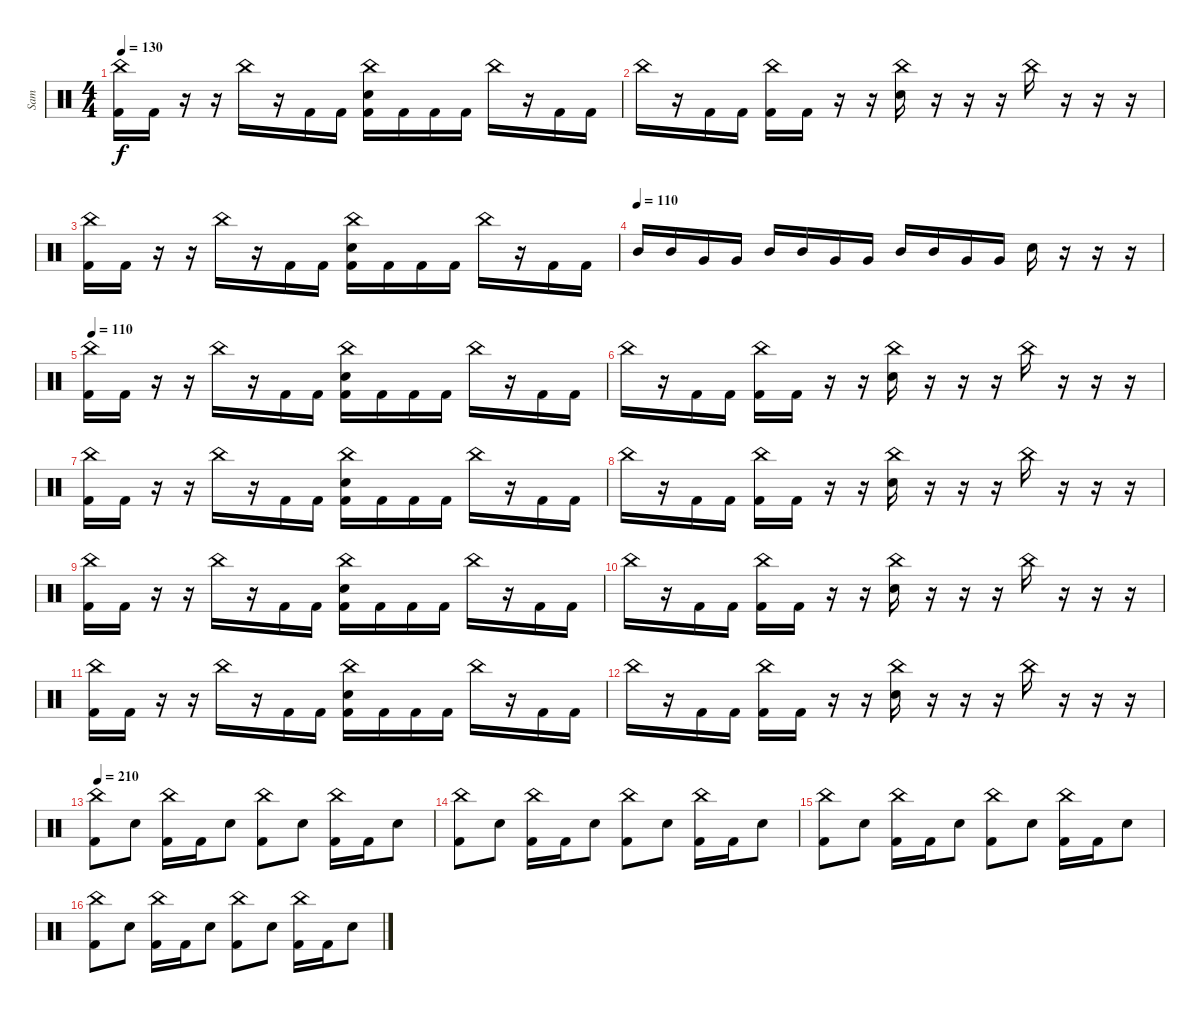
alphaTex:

\track ("Sam" "Sam") {instrument percussion}
\staff {score}
\articulation defaults
\ts (4 4)
\tempo 130
\clef neutral
\ks c
("China (hit)" "Kick (hit) 2").16{dy f} "Kick (hit) 2".16 r.16 r.16 "China (hit)".16 r.16 "Kick (hit) 2".16 "Kick (hit) 2".16 ("China (hit)" "Snare (hit) 2" "Kick (hit) 2").16 "Kick (hit) 2".16 "Kick (hit) 2".16 "Kick (hit) 2".16 "China (hit)".16 r.16 "Kick (hit) 2".16 "Kick (hit) 2".16 |
"China (hit)".16 r.16 "Kick (hit) 2".16 "Kick (hit) 2".16 ("China (hit)" "Kick (hit) 2").16 "Kick (hit) 2".16 r.16 r.16 ("China (hit)" "Snare (hit) 2").16 r.16 r.16 r.16 "China (hit)".16 r.16 r.16 r.16 |
("China (hit)" "Kick (hit) 2").16 "Kick (hit) 2".16 r.16 r.16 "China (hit)".16 r.16 "Kick (hit) 2".16 "Kick (hit) 2".16 ("China (hit)" "Snare (hit) 2" "Kick (hit) 2").16 "Kick (hit) 2".16 "Kick (hit) 2".16 "Kick (hit) 2".16 "China (hit)".16 r.16 "Kick (hit) 2".16 "Kick (hit) 2".16 |
\tempo (110)
"Mid Tom (hit)".16 "Mid Tom (hit)".16 "Very Low Tom (hit)".16 "Very Low Tom (hit)".16 "Mid Tom (hit)".16 "Mid Tom (hit)".16 "Very Low Tom (hit)".16 "Very Low Tom (hit)".16 "Mid Tom (hit)".16 "Mid Tom (hit)".16 "Very Low Tom (hit)".16 "Very Low Tom (hit)".16 "Snare (hit) 2".16 r.16 r.16 r.16 |
\tempo 110
("China (hit)" "Kick (hit) 2").16 "Kick (hit) 2".16 r.16 r.16 "China (hit)".16 r.16 "Kick (hit) 2".16 "Kick (hit) 2".16 ("China (hit)" "Snare (hit) 2" "Kick (hit) 2").16 "Kick (hit) 2".16 "Kick (hit) 2".16 "Kick (hit) 2".16 "China (hit)".16 r.16 "Kick (hit) 2".16 "Kick (hit) 2".16 |
"China (hit)".16 r.16 "Kick (hit) 2".16 "Kick (hit) 2".16 ("China (hit)" "Kick (hit) 2").16 "Kick (hit) 2".16 r.16 r.16 ("China (hit)" "Snare (hit) 2").16 r.16 r.16 r.16 "China (hit)".16 r.16 r.16 r.16 |
("China (hit)" "Kick (hit) 2").16 "Kick (hit) 2".16 r.16 r.16 "China (hit)".16 r.16 "Kick (hit) 2".16 "Kick (hit) 2".16 ("China (hit)" "Snare (hit) 2" "Kick (hit) 2").16 "Kick (hit) 2".16 "Kick (hit) 2".16 "Kick (hit) 2".16 "China (hit)".16 r.16 "Kick (hit) 2".16 "Kick (hit) 2".16 |
"China (hit)".16 r.16 "Kick (hit) 2".16 "Kick (hit) 2".16 ("China (hit)" "Kick (hit) 2").16 "Kick (hit) 2".16 r.16 r.16 ("China (hit)" "Snare (hit) 2").16 r.16 r.16 r.16 "China (hit)".16 r.16 r.16 r.16 |
("China (hit)" "Kick (hit) 2").16 "Kick (hit) 2".16 r.16 r.16 "China (hit)".16 r.16 "Kick (hit) 2".16 "Kick (hit) 2".16 ("China (hit)" "Snare (hit) 2" "Kick (hit) 2").16 "Kick (hit) 2".16 "Kick (hit) 2".16 "Kick (hit) 2".16 "China (hit)".16 r.16 "Kick (hit) 2".16 "Kick (hit) 2".16 |
"China (hit)".16 r.16 "Kick (hit) 2".16 "Kick (hit) 2".16 ("China (hit)" "Kick (hit) 2").16 "Kick (hit) 2".16 r.16 r.16 ("China (hit)" "Snare (hit) 2").16 r.16 r.16 r.16 "China (hit)".16 r.16 r.16 r.16 |
("China (hit)" "Kick (hit) 2").16 "Kick (hit) 2".16 r.16 r.16 "China (hit)".16 r.16 "Kick (hit) 2".16 "Kick (hit) 2".16 ("China (hit)" "Snare (hit) 2" "Kick (hit) 2").16 "Kick (hit) 2".16 "Kick (hit) 2".16 "Kick (hit) 2".16 "China (hit)".16 r.16 "Kick (hit) 2".16 "Kick (hit) 2".16 |
"China (hit)".16 r.16 "Kick (hit) 2".16 "Kick (hit) 2".16 ("China (hit)" "Kick (hit) 2").16 "Kick (hit) 2".16 r.16 r.16 ("China (hit)" "Snare (hit) 2").16 r.16 r.16 r.16 "China (hit)".16 r.16 r.16 r.16 |
\tempo 210
("China (hit)" "Kick (hit) 2").8 "Snare (hit) 2".8 ("China (hit)" "Kick (hit) 2").16 "Kick (hit) 2".16 "Snare (hit) 2".8 ("China (hit)" "Kick (hit) 2").8 "Snare (hit) 2".8 ("China (hit)" "Kick (hit) 2").16 "Kick (hit) 2".16 "Snare (hit) 2".8 |
("China (hit)" "Kick (hit) 2").8 "Snare (hit) 2".8 ("China (hit)" "Kick (hit) 2").16 "Kick (hit) 2".16 "Snare (hit) 2".8 ("China (hit)" "Kick (hit) 2").8 "Snare (hit) 2".8 ("China (hit)" "Kick (hit) 2").16 "Kick (hit) 2".16 "Snare (hit) 2".8 |
("China (hit)" "Kick (hit) 2").8 "Snare (hit) 2".8 ("China (hit)" "Kick (hit) 2").16 "Kick (hit) 2".16 "Snare (hit) 2".8 ("China (hit)" "Kick (hit) 2").8 "Snare (hit) 2".8 ("China (hit)" "Kick (hit) 2").16 "Kick (hit) 2".16 "Snare (hit) 2".8 |
("China (hit)" "Kick (hit) 2").8 "Snare (hit) 2".8 ("China (hit)" "Kick (hit) 2").16 "Kick (hit) 2".16 "Snare (hit) 2".8 ("China (hit)" "Kick (hit) 2").8 "Snare (hit) 2".8 ("China (hit)" "Kick (hit) 2").16 "Kick (hit) 2".16 "Snare (hit) 2".8
